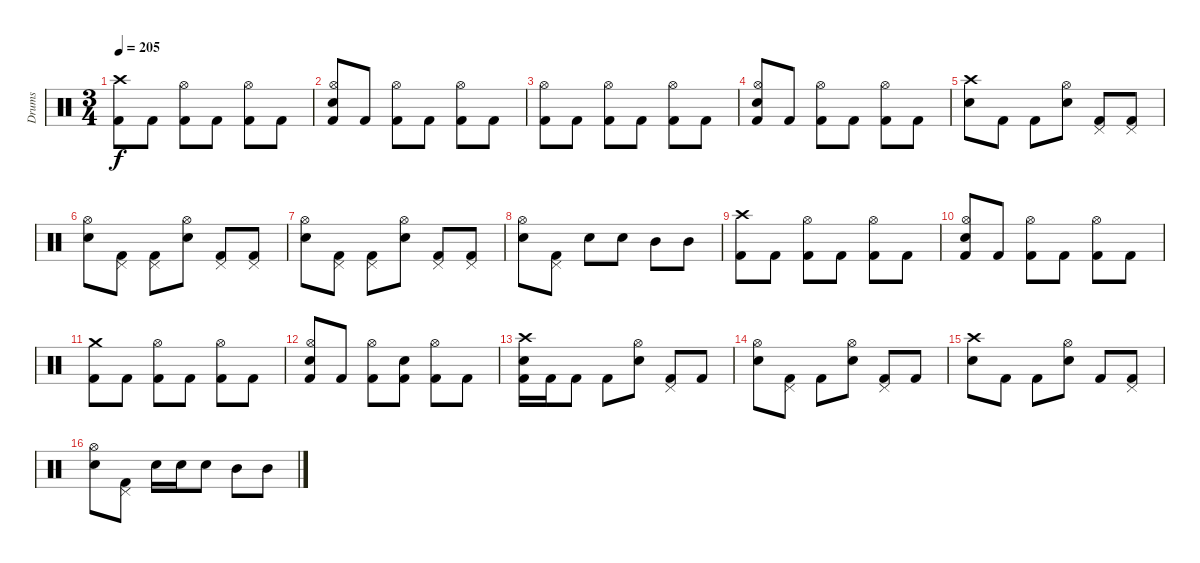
\track ("Drums" "Drums") {instrument percussion}
\staff {score}
\articulation defaults
\ts (3 4)
\tempo 205
\clef neutral
\ks c
("Crash high (hit)" "Kick (hit) 2").8{dy f} "Kick (hit) 2".8 ("Hi-Hat (open)" "Kick (hit) 2").8 "Kick (hit) 2".8 ("Hi-Hat (open)" "Kick (hit) 2").8 "Kick (hit) 2".8 |
("Hi-Hat (open)" "Snare (hit) 2" "Kick (hit) 2").8 "Kick (hit) 2".8 ("Hi-Hat (open)" "Kick (hit) 2").8 "Kick (hit) 2".8 ("Hi-Hat (open)" "Kick (hit) 2").8 "Kick (hit) 2".8 |
("Hi-Hat (open)" "Kick (hit) 2").8 "Kick (hit) 2".8 ("Hi-Hat (open)" "Kick (hit) 2").8 "Kick (hit) 2".8 ("Hi-Hat (open)" "Kick (hit) 2").8 "Kick (hit) 2".8 |
("Hi-Hat (open)" "Snare (hit) 2" "Kick (hit) 2").8 "Kick (hit) 2".8 ("Hi-Hat (open)" "Kick (hit) 2").8 "Kick (hit) 2".8 ("Hi-Hat (open)" "Kick (hit) 2").8 "Kick (hit) 2".8 |
("Crash high (hit)" "Snare (hit) 2").8 "Kick (hit) 2".8 "Kick (hit) 2".8 ("Hi-Hat (open)" "Snare (hit) 2").8 ("Pedal Hi-Hat (hit)" "Kick (hit) 2").8 ("Pedal Hi-Hat (hit)" "Kick (hit) 2").8 |
("Hi-Hat (open)" "Snare (hit) 2").8 ("Pedal Hi-Hat (hit)" "Kick (hit) 2").8 ("Pedal Hi-Hat (hit)" "Kick (hit) 2").8 ("Hi-Hat (open)" "Snare (hit) 2").8 ("Pedal Hi-Hat (hit)" "Kick (hit) 2").8 ("Pedal Hi-Hat (hit)" "Kick (hit) 2").8 |
("Hi-Hat (open)" "Snare (hit) 2").8 ("Pedal Hi-Hat (hit)" "Kick (hit) 2").8 ("Pedal Hi-Hat (hit)" "Kick (hit) 2").8 ("Hi-Hat (open)" "Snare (hit) 2").8 ("Pedal Hi-Hat (hit)" "Kick (hit) 2").8 ("Pedal Hi-Hat (hit)" "Kick (hit) 2").8 |
("Hi-Hat (open)" "Snare (hit) 2").8 ("Pedal Hi-Hat (hit)" "Kick (hit) 2").8 "Snare (hit) 2".8 "Snare (hit) 2".8 "Mid Tom (hit)".8 "Mid Tom (hit)".8 |
("Crash high (hit)" "Kick (hit) 2").8 "Kick (hit) 2".8 ("Hi-Hat (open)" "Kick (hit) 2").8 "Kick (hit) 2".8 ("Hi-Hat (open)" "Kick (hit) 2").8 "Kick (hit) 2".8 |
("Hi-Hat (open)" "Snare (hit) 2" "Kick (hit) 2").8 "Kick (hit) 2".8 ("Hi-Hat (open)" "Kick (hit) 2").8 "Kick (hit) 2".8 ("Hi-Hat (open)" "Kick (hit) 2").8 "Kick (hit) 2".8 |
("Crash medium (hit)" "Kick (hit) 2").8 "Kick (hit) 2".8 ("Hi-Hat (open)" "Kick (hit) 2").8 "Kick (hit) 2".8 ("Hi-Hat (open)" "Kick (hit) 2").8 "Kick (hit) 2".8 |
("Hi-Hat (open)" "Snare (hit) 2" "Kick (hit) 2").8 "Kick (hit) 2".8 ("Hi-Hat (open)" "Kick (hit) 2").8 ("Snare (hit) 2" "Kick (hit) 2").8 ("Hi-Hat (open)" "Kick (hit) 2").8 "Kick (hit) 2".8 |
("Crash high (hit)" "Snare (hit) 2" "Kick (hit) 2").16 "Kick (hit) 2".16 "Kick (hit) 2".8 "Kick (hit) 2".8 ("Hi-Hat (open)" "Snare (hit) 2").8 ("Pedal Hi-Hat (hit)" "Kick (hit) 2").8 "Kick (hit) 2".8 |
("Hi-Hat (open)" "Snare (hit) 2").8 ("Pedal Hi-Hat (hit)" "Kick (hit) 2").8 "Kick (hit) 2".8 ("Hi-Hat (open)" "Snare (hit) 2").8 ("Pedal Hi-Hat (hit)" "Kick (hit) 2").8 "Kick (hit) 2".8 |
("Crash high (hit)" "Snare (hit) 2").8 "Kick (hit) 2".8 "Kick (hit) 2".8 ("Hi-Hat (open)" "Snare (hit) 2").8 "Kick (hit) 2".8 ("Pedal Hi-Hat (hit)" "Kick (hit) 2").8 |
("Hi-Hat (open)" "Snare (hit) 2").8 ("Pedal Hi-Hat (hit)" "Kick (hit) 2").8 "Snare (hit) 2".16 "Snare (hit) 2".16 "Snare (hit) 2".8 "Mid Tom (hit)".8 "Mid Tom (hit)".8
